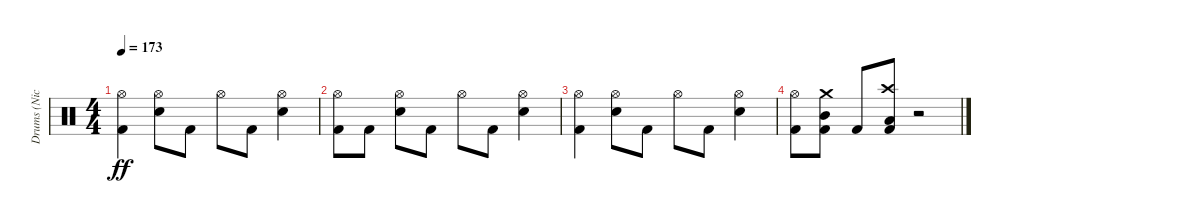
\track ("Drums (Nick Oshiro)" "Drums (Nic") {instrument percussion}
\staff {score}
\articulation defaults
\ts (4 4)
\tempo 173
\clef neutral
\ks c
("Hi-Hat (open)" "Kick (hit) 2").4{dy ff} ("Hi-Hat (open)" "Snare (hit) 2").8 "Kick (hit) 2".8 "Hi-Hat (open)".8 "Kick (hit) 2".8 ("Hi-Hat (open)" "Snare (hit) 2").4 |
("Hi-Hat (open)" "Kick (hit) 2").8 "Kick (hit) 2".8 ("Hi-Hat (open)" "Snare (hit) 2").8 "Kick (hit) 2".8 "Hi-Hat (open)".8 "Kick (hit) 2".8 ("Hi-Hat (open)" "Snare (hit) 2").4 |
("Hi-Hat (open)" "Kick (hit) 2").4 ("Hi-Hat (open)" "Snare (hit) 2").8 "Kick (hit) 2".8 "Hi-Hat (open)".8 "Kick (hit) 2".8 ("Hi-Hat (open)" "Snare (hit) 2").4 |
("Hi-Hat (open)" "Kick (hit) 2").8 ("Crash medium (hit)" "Mid Tom (hit)" "Kick (hit) 2").8 "Kick (hit) 2".8 ("Crash high (hit)" "Low Tom (hit)" "Kick (hit) 2").8 r.2
